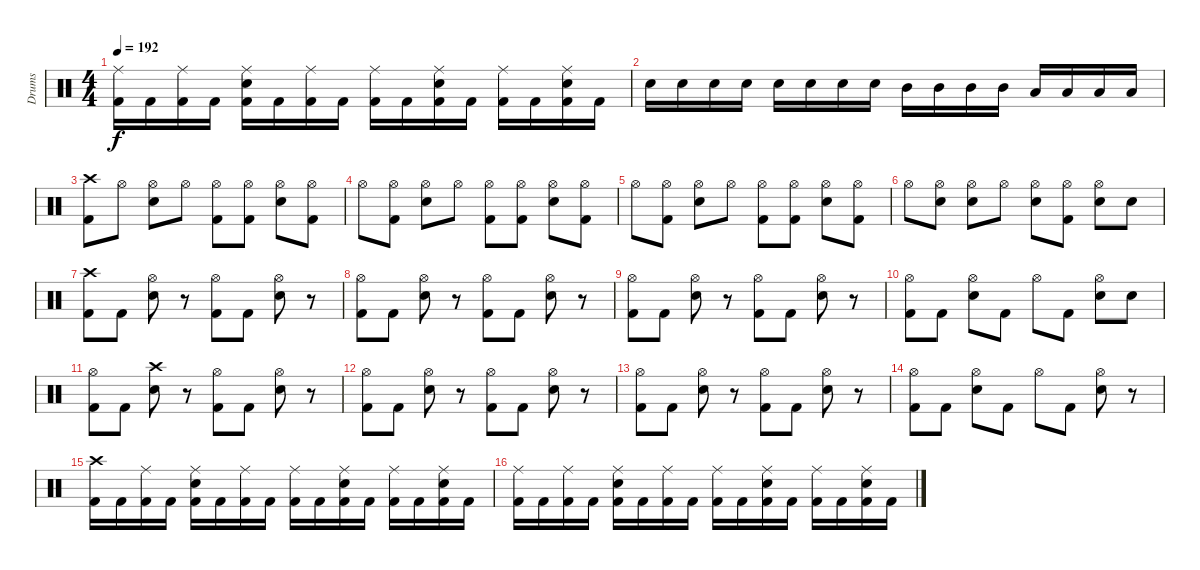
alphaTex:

\track ("Drums" "Drums") {instrument percussion}
\staff {score}
\articulation defaults
\ts (4 4)
\tempo 192
\clef neutral
\ks c
("Ride (middle)" "Kick (hit) 2").16{dy f} "Kick (hit) 2".16 ("Ride (middle)" "Kick (hit) 2").16 "Kick (hit) 2".16 ("Ride (middle)" "Snare (hit) 2" "Kick (hit) 2").16 "Kick (hit) 2".16 ("Ride (middle)" "Kick (hit) 2").16 "Kick (hit) 2".16 ("Ride (middle)" "Kick (hit) 2").16 "Kick (hit) 2".16 ("Ride (middle)" "Snare (hit) 2" "Kick (hit) 2").16 "Kick (hit) 2".16 ("Ride (middle)" "Kick (hit) 2").16 "Kick (hit) 2".16 ("Ride (middle)" "Snare (hit) 2" "Kick (hit) 2").16 "Kick (hit) 2".16 |
"Snare (hit) 2".16 "Snare (hit) 2".16 "Snare (hit) 2".16 "Snare (hit) 2".16 "Snare (hit) 2".16 "Snare (hit) 2".16 "Snare (hit) 2".16 "Snare (hit) 2".16 "Mid Tom (hit)".16 "Mid Tom (hit)".16 "Mid Tom (hit)".16 "Mid Tom (hit)".16 "Low Tom (hit)".16 "Low Tom (hit)".16 "Low Tom (hit)".16 "Low Tom (hit)".16 |
("Crash high (hit)" "Kick (hit) 2").8 "Hi-Hat (open)".8 ("Hi-Hat (open)" "Snare (hit) 2").8 "Hi-Hat (open)".8 ("Hi-Hat (open)" "Kick (hit) 2").8 ("Hi-Hat (open)" "Kick (hit) 2").8 ("Hi-Hat (open)" "Snare (hit) 2").8 ("Hi-Hat (open)" "Kick (hit) 2").8 |
"Hi-Hat (open)".8 ("Hi-Hat (open)" "Kick (hit) 2").8 ("Hi-Hat (open)" "Snare (hit) 2").8 "Hi-Hat (open)".8 ("Hi-Hat (open)" "Kick (hit) 2").8 ("Hi-Hat (open)" "Kick (hit) 2").8 ("Hi-Hat (open)" "Snare (hit) 2").8 ("Hi-Hat (open)" "Kick (hit) 2").8 |
"Hi-Hat (open)".8 ("Hi-Hat (open)" "Kick (hit) 2").8 ("Hi-Hat (open)" "Snare (hit) 2").8 "Hi-Hat (open)".8 ("Hi-Hat (open)" "Kick (hit) 2").8 ("Hi-Hat (open)" "Kick (hit) 2").8 ("Hi-Hat (open)" "Snare (hit) 2").8 ("Hi-Hat (open)" "Kick (hit) 2").8 |
"Hi-Hat (open)".8 ("Hi-Hat (open)" "Snare (hit) 2").8 ("Hi-Hat (open)" "Snare (hit) 2").8 "Hi-Hat (open)".8 ("Hi-Hat (open)" "Snare (hit) 2").8 ("Hi-Hat (open)" "Kick (hit) 2").8 ("Hi-Hat (open)" "Snare (hit) 2").8 "Snare (hit) 2".8 |
("Crash high (hit)" "Kick (hit) 2").8 "Kick (hit) 2".8 ("Hi-Hat (open)" "Snare (hit) 2").8 r.8 ("Hi-Hat (open)" "Kick (hit) 2").8 "Kick (hit) 2".8 ("Hi-Hat (open)" "Snare (hit) 2").8 r.8 |
("Hi-Hat (open)" "Kick (hit) 2").8 "Kick (hit) 2".8 ("Hi-Hat (open)" "Snare (hit) 2").8 r.8 ("Hi-Hat (open)" "Kick (hit) 2").8 "Kick (hit) 2".8 ("Hi-Hat (open)" "Snare (hit) 2").8 r.8 |
("Hi-Hat (open)" "Kick (hit) 2").8 "Kick (hit) 2".8 ("Hi-Hat (open)" "Snare (hit) 2").8 r.8 ("Hi-Hat (open)" "Kick (hit) 2").8 "Kick (hit) 2".8 ("Hi-Hat (open)" "Snare (hit) 2").8 r.8 |
("Hi-Hat (open)" "Kick (hit) 2").8 "Kick (hit) 2".8 ("Hi-Hat (open)" "Snare (hit) 2").8 "Kick (hit) 2".8 "Hi-Hat (open)".8 "Kick (hit) 2".8 ("Hi-Hat (open)" "Snare (hit) 2").8 "Snare (hit) 2".8 |
("Hi-Hat (open)" "Kick (hit) 2").8 "Kick (hit) 2".8 ("Crash high (hit)" "Snare (hit) 2").8 r.8 ("Hi-Hat (open)" "Kick (hit) 2").8 "Kick (hit) 2".8 ("Hi-Hat (open)" "Snare (hit) 2").8 r.8 |
("Hi-Hat (open)" "Kick (hit) 2").8 "Kick (hit) 2".8 ("Hi-Hat (open)" "Snare (hit) 2").8 r.8 ("Hi-Hat (open)" "Kick (hit) 2").8 "Kick (hit) 2".8 ("Hi-Hat (open)" "Snare (hit) 2").8 r.8 |
("Hi-Hat (open)" "Kick (hit) 2").8 "Kick (hit) 2".8 ("Hi-Hat (open)" "Snare (hit) 2").8 r.8 ("Hi-Hat (open)" "Kick (hit) 2").8 "Kick (hit) 2".8 ("Hi-Hat (open)" "Snare (hit) 2").8 r.8 |
("Hi-Hat (open)" "Kick (hit) 2").8 "Kick (hit) 2".8 ("Hi-Hat (open)" "Snare (hit) 2").8 "Kick (hit) 2".8 "Hi-Hat (open)".8 "Kick (hit) 2".8 ("Hi-Hat (open)" "Snare (hit) 2").8 r.8 |
("Crash high (hit)" "Kick (hit) 2").16 "Kick (hit) 2".16 ("Ride (middle)" "Kick (hit) 2").16 "Kick (hit) 2".16 ("Ride (middle)" "Snare (hit) 2" "Kick (hit) 2").16 "Kick (hit) 2".16 ("Ride (middle)" "Kick (hit) 2").16 "Kick (hit) 2".16 ("Ride (middle)" "Kick (hit) 2").16 "Kick (hit) 2".16 ("Ride (middle)" "Snare (hit) 2" "Kick (hit) 2").16 "Kick (hit) 2".16 ("Ride (middle)" "Kick (hit) 2").16 "Kick (hit) 2".16 ("Ride (middle)" "Snare (hit) 2" "Kick (hit) 2").16 "Kick (hit) 2".16 |
("Ride (middle)" "Kick (hit) 2").16 "Kick (hit) 2".16 ("Ride (middle)" "Kick (hit) 2").16 "Kick (hit) 2".16 ("Ride (middle)" "Snare (hit) 2" "Kick (hit) 2").16 "Kick (hit) 2".16 ("Ride (middle)" "Kick (hit) 2").16 "Kick (hit) 2".16 ("Ride (middle)" "Kick (hit) 2").16 "Kick (hit) 2".16 ("Ride (middle)" "Snare (hit) 2" "Kick (hit) 2").16 "Kick (hit) 2".16 ("Ride (middle)" "Kick (hit) 2").16 "Kick (hit) 2".16 ("Ride (middle)" "Snare (hit) 2" "Kick (hit) 2").16 "Kick (hit) 2".16
